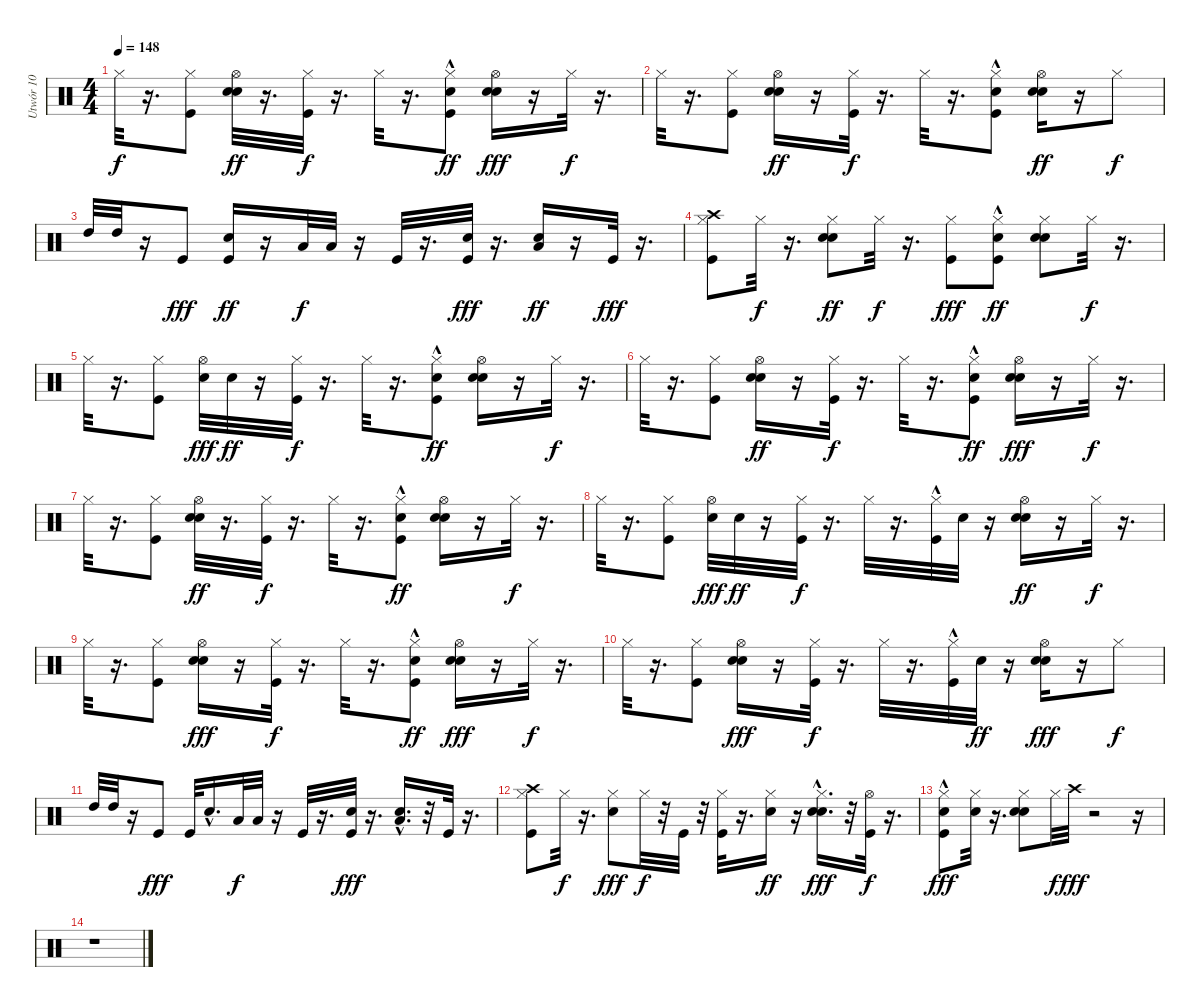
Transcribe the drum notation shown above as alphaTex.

\track ("Utwór 10" "Utwór 10") {instrument percussion}
\staff {score}
\articulation defaults
\ts (4 4)
\tempo 148
\clef neutral
\ks c "Hi-Hat (closed)".32{dy f}
r.16{d} ("Hi-Hat (closed)" "Kick (hit)").8 ("Hi-Hat (open)" "Electric Snare (hit)" "Hand Clap (hit)").32{dy ff} r.16{d} ("Hi-Hat (closed)" "Kick (hit)").32{dy f} r.16{d} "Hi-Hat (closed)".32 r.16{d} ("Hi-Hat (closed)" "Kick (hit)"{hac} "Hand Clap (hit)").8{dy ff} ("Hand Clap (hit)" "Hi-Hat (open)" "Electric Snare (hit)").16{dy fff} r.16 "Hi-Hat (closed)".32{dy f} r.16{d} |
"Hi-Hat (closed)".32 r.16{d} ("Hi-Hat (closed)" "Kick (hit)").8 ("Hi-Hat (open)" "Electric Snare (hit)" "Hand Clap (hit)").16{dy ff} r.16 ("Hi-Hat (closed)" "Kick (hit)").32{dy f} r.16{d} "Hi-Hat (closed)".32 r.16{d} ("Hi-Hat (closed)" "Kick (hit)"{hac} "Hand Clap (hit)").8 ("Hi-Hat (open)" "Electric Snare (hit)" "Hand Clap (hit)").16{dy ff} r.16 "Hi-Hat (closed)".8{dy f} |
"High Tom (hit)".32 "High Tom (hit)".32 r.16 "Kick (hit)".8{dy fff} ("Kick (hit)" "Hand Clap (hit)").16{dy ff} r.16 "Low Tom (hit)".32{dy f} "Low Tom (hit)".32 r.16 "Kick (hit)".32 r.16{d} ("Kick (hit)" "Hand Clap (hit)").32{dy fff} r.16{d} ("Hand Clap (hit)" "Low Floor Tom (hit)").16{dy ff} r.16 "Kick (hit)".32{dy fff} r.16{d} |
("Crash high (hit)" "Hi-Hat (closed)" "Kick (hit)").8 "Hi-Hat (closed)".32{dy f} r.16{d} ("Hi-Hat (closed)" "Electric Snare (hit)" "Hand Clap (hit)").8{dy ff} "Hi-Hat (closed)".32{dy f} r.16{d} ("Hi-Hat (closed)" "Kick (hit)").8{dy fff} ("Hi-Hat (closed)" "Kick (hit)"{hac} "Hand Clap (hit)").8{dy ff} ("Hi-Hat (closed)" "Electric Snare (hit)" "Hand Clap (hit)").8 "Hi-Hat (closed)".32{dy f} r.16{d} |
"Hi-Hat (closed)".32 r.16{d} ("Hi-Hat (closed)" "Kick (hit)").8 ("Hi-Hat (open)" "Electric Snare (hit)").32{dy fff} "Hand Clap (hit)".32{dy ff} r.16 ("Hi-Hat (closed)" "Kick (hit)").32{dy f} r.16{d} "Hi-Hat (closed)".32 r.16{d} ("Hand Clap (hit)" "Hi-Hat (closed)" "Kick (hit)"{hac}).8{dy ff} ("Hi-Hat (open)" "Electric Snare (hit)" "Hand Clap (hit)").16 r.16 "Hi-Hat (closed)".32{dy f} r.16{d} |
"Hi-Hat (closed)".32 r.16{d} ("Hi-Hat (closed)" "Kick (hit)").8 ("Hi-Hat (open)" "Electric Snare (hit)" "Hand Clap (hit)").16{dy ff} r.16 ("Hi-Hat (closed)" "Kick (hit)").32{dy f} r.16{d} "Hi-Hat (closed)".32 r.16{d} ("Hand Clap (hit)" "Hi-Hat (closed)" "Kick (hit)"{hac}).8{dy ff} ("Hi-Hat (open)" "Hand Clap (hit)" "Electric Snare (hit)").16{dy fff} r.16 "Hi-Hat (closed)".32{dy f} r.16{d} |
"Hi-Hat (closed)".32 r.16{d} ("Hi-Hat (closed)" "Kick (hit)").8 ("Hi-Hat (open)" "Electric Snare (hit)" "Hand Clap (hit)").32{dy ff} r.16{d} ("Hi-Hat (closed)" "Kick (hit)").32{dy f} r.16{d} "Hi-Hat (closed)".32 r.16{d} ("Hi-Hat (closed)" "Kick (hit)"{hac} "Hand Clap (hit)").8{dy ff} ("Hi-Hat (open)" "Electric Snare (hit)" "Hand Clap (hit)").16 r.16 "Hi-Hat (closed)".32{dy f} r.16{d} |
"Hi-Hat (closed)".32 r.16{d} ("Hi-Hat (closed)" "Kick (hit)").8 ("Hi-Hat (open)" "Electric Snare (hit)").32{dy fff} "Hand Clap (hit)".32{dy ff} r.16 ("Hi-Hat (closed)" "Kick (hit)").32{dy f} r.16{d} "Hi-Hat (closed)".32 r.16{d} ("Hi-Hat (closed)" "Kick (hit)"{hac}).32 "Hand Clap (hit)".32 r.16 ("Hi-Hat (open)" "Electric Snare (hit)" "Hand Clap (hit)").16{dy ff} r.16 "Hi-Hat (closed)".32{dy f} r.16{d} |
"Hi-Hat (closed)".32 r.16{d} ("Hi-Hat (closed)" "Kick (hit)").8 ("Hand Clap (hit)" "Hi-Hat (open)" "Electric Snare (hit)").16{dy fff} r.16 ("Hi-Hat (closed)" "Kick (hit)").32{dy f} r.16{d} "Hi-Hat (closed)".32 r.16{d} ("Hand Clap (hit)" "Hi-Hat (closed)" "Kick (hit)"{hac}).8{dy ff} ("Hand Clap (hit)" "Hi-Hat (open)" "Electric Snare (hit)").16{dy fff} r.16 "Hi-Hat (closed)".32{dy f} r.16{d} |
"Hi-Hat (closed)".32 r.16{d} ("Hi-Hat (closed)" "Kick (hit)").8 ("Hand Clap (hit)" "Hi-Hat (open)" "Electric Snare (hit)").16{dy fff} r.16 ("Hi-Hat (closed)" "Kick (hit)").32{dy f} r.16{d} "Hi-Hat (closed)".32 r.16{d} ("Hi-Hat (closed)" "Kick (hit)"{hac}).32 "Hand Clap (hit)".32{dy ff} r.16 ("Hand Clap (hit)" "Hi-Hat (open)" "Electric Snare (hit)").16{dy fff} r.16 "Hi-Hat (closed)".8{dy f} |
"High Tom (hit)".32 "High Tom (hit)".32 r.16 "Kick (hit)".8{dy fff} "Kick (hit)".32 "Hand Clap (hit)"{hac}.16{d} "Low Tom (hit)".32{dy f} "Low Tom (hit)".32 r.16 "Kick (hit)".32 r.16{d} ("Kick (hit)" "Hand Clap (hit)").32{dy fff} r.16{d} ("Hand Clap (hit)"{hac} "Low Floor Tom (hit)").16{d} r.32 "Kick (hit)".32 r.16{d} |
("Crash high (hit)" "Hi-Hat (closed)" "Kick (hit)").8 "Hi-Hat (closed)".32{dy f} r.16{d} ("Hi-Hat (closed)" "Electric Snare (hit)").8{dy fff} "Hi-Hat (closed)".32{dy f} r.32 "Kick (hit)".32 r.32 ("Hi-Hat (closed)" "Kick (hit)").32 r.16{d} ("Hand Clap (hit)" "Hi-Hat (closed)").16{dy ff} r.16 ("Hand Clap (hit)"{hac} "Hi-Hat (closed)" "Electric Snare (hit)").16{d dy fff} r.32 ("Hi-Hat (open)" "Kick (hit)").32{dy f} r.16{d} |
("Hi-Hat (closed)" "Kick (hit)"{hac} "Electric Snare (hit)").8{dy fff} ("Electric Snare (hit)" "Hi-Hat (closed)").32 r.16{d} ("Electric Snare (hit)" "Hi-Hat (closed)" "Electric Snare (hit)").8 "Hi-Hat (closed)".32{dy f} "Crash high (hit)".32{dy fff} r.2 r.16 |
r.1
